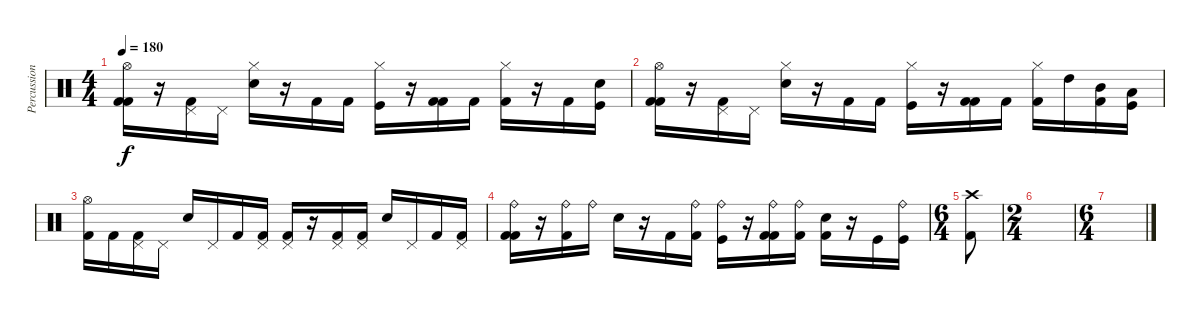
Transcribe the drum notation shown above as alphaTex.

\track ("Percussion" "Percussion") {instrument percussion}
\staff {score}
\articulation defaults
\ts (4 4)
\tempo 180
\clef neutral
\ks c
("Hi-Hat (open)" "Kick (hit) 2" "Kick (hit) 2").16{dy f} r.16 ("Pedal Hi-Hat (hit)" "Kick (hit) 2").16 "Pedal Hi-Hat (hit)".16 ("Hi-Hat (closed)" "Snare (hit) 2").16 r.16 "Kick (hit) 2".16 "Kick (hit) 2".16 ("Hi-Hat (closed)" "Kick (hit)").16 r.16 ("Kick (hit) 2" "Kick (hit) 2").16 "Kick (hit) 2".16 ("Hi-Hat (closed)" "Kick (hit) 2").16 r.16 "Kick (hit) 2".16 ("Metronome (bell)" "Kick (hit)").16 |
("Hi-Hat (open)" "Kick (hit) 2" "Kick (hit) 2").16 r.16 ("Pedal Hi-Hat (hit)" "Kick (hit) 2").16 "Pedal Hi-Hat (hit)".16 ("Hi-Hat (closed)" "Snare (hit) 2").16 r.16 "Kick (hit) 2".16 "Kick (hit) 2".16 ("Hi-Hat (closed)" "Kick (hit)").16 r.16 ("Kick (hit) 2" "Kick (hit) 2").16 "Kick (hit) 2".16 ("Hi-Hat (closed)" "Kick (hit) 2").16 "High Tom (hit)".16 ("Mid Tom (hit)" "Kick (hit) 2").16 ("Low Tom (hit)" "Kick (hit)").16 |
("Hi-Hat (open)" "Kick (hit) 2").16 "Kick (hit) 2".16 ("Pedal Hi-Hat (hit)" "Kick (hit) 2").16 "Pedal Hi-Hat (hit)".16 "Snare (hit) 2".16 "Pedal Hi-Hat (hit)".16 "Kick (hit) 2".16 ("Pedal Hi-Hat (hit)" "Kick (hit) 2").16 ("Pedal Hi-Hat (hit)" "Kick (hit) 2").16 r.16 ("Pedal Hi-Hat (hit)" "Kick (hit) 2").16 ("Pedal Hi-Hat (hit)" "Kick (hit) 2").16 "Snare (hit) 2".16 "Pedal Hi-Hat (hit)".16 "Kick (hit) 2".16 ("Pedal Hi-Hat (hit)" "Kick (hit) 2").16 |
("Ride (bell)" "Kick (hit) 2" "Kick (hit) 2").16 r.16 ("Ride (bell)" "Kick (hit) 2").16 "Ride (bell)".16 "Snare (hit) 2".16 r.16 "Kick (hit) 2".16 ("Ride (bell)" "Kick (hit) 2").16 ("Ride (bell)" "Kick (hit)").16 r.16 ("Ride (bell)" "Kick (hit) 2" "Kick (hit) 2").16 ("Ride (bell)" "Kick (hit) 2").16 ("Snare (hit) 2" "Kick (hit) 2").16 r.16 "Kick (hit)".16 ("Ride (bell)" "Kick (hit)").16 |
\ts (6 4)
("Crash high (hit)" "Kick (hit) 2").8 |
\ts (2 4)
|
\ts (6 4)
